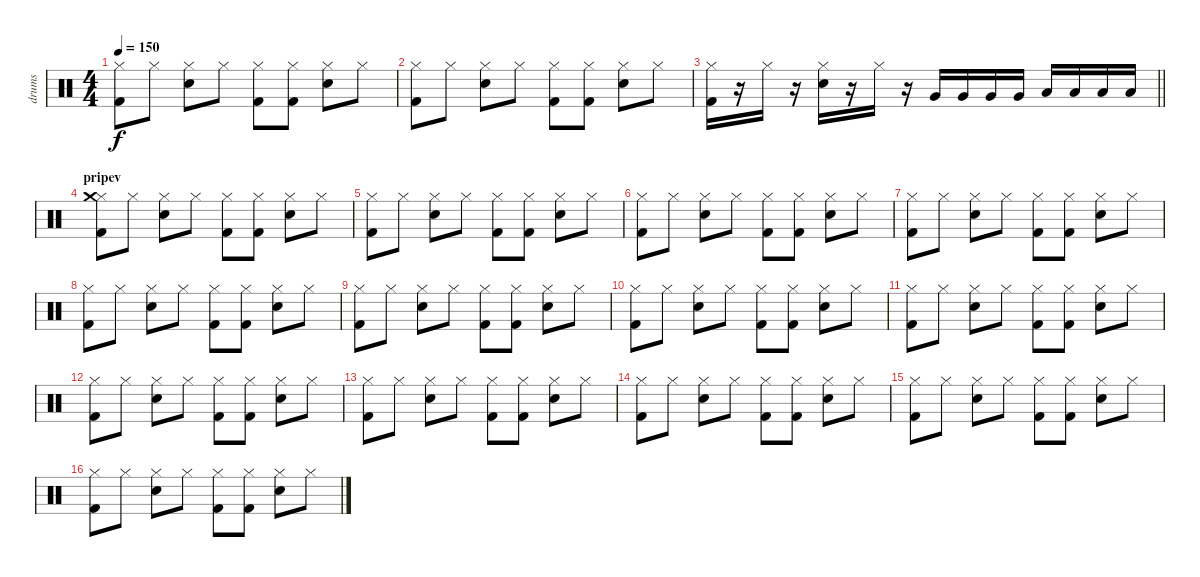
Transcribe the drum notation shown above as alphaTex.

\track ("drums" "drums") {instrument percussion}
\staff {score}
\articulation defaults
\ts (4 4)
\tempo 150
\clef neutral
\ks c
("Kick (hit) 2" "Hi-Hat (closed)").8{dy f} "Hi-Hat (closed)".8 ("Snare (hit) 2" "Hi-Hat (closed)").8 "Hi-Hat (closed)".8 ("Kick (hit) 2" "Hi-Hat (closed)").8 ("Kick (hit) 2" "Hi-Hat (closed)").8 ("Snare (hit) 2" "Hi-Hat (closed)").8 "Hi-Hat (closed)".8 |
("Kick (hit) 2" "Hi-Hat (closed)").8 "Hi-Hat (closed)".8 ("Snare (hit) 2" "Hi-Hat (closed)").8 "Hi-Hat (closed)".8 ("Kick (hit) 2" "Hi-Hat (closed)").8 ("Kick (hit) 2" "Hi-Hat (closed)").8 ("Snare (hit) 2" "Hi-Hat (closed)").8 "Hi-Hat (closed)".8 |
\barLineRight lightlight
("Kick (hit) 2" "Hi-Hat (closed)").16 r.16 "Hi-Hat (closed)".16 r.16 ("Snare (hit) 2" "Hi-Hat (closed)").16 r.16 "Hi-Hat (closed)".16 r.16 "Very Low Tom (hit)".16 "Very Low Tom (hit)".16 "Very Low Tom (hit)".16 "Very Low Tom (hit)".16 "Low Floor Tom (hit)".16 "Low Floor Tom (hit)".16 "Low Floor Tom (hit)".16 "Low Floor Tom (hit)".16 |
\section ("" "pripev")
("Kick (hit) 2" "Hi-Hat (closed)" "Crash medium (hit)").8 "Hi-Hat (closed)".8 ("Snare (hit) 2" "Hi-Hat (closed)").8 "Hi-Hat (closed)".8 ("Kick (hit) 2" "Hi-Hat (closed)").8 ("Kick (hit) 2" "Hi-Hat (closed)").8 ("Snare (hit) 2" "Hi-Hat (closed)").8 "Hi-Hat (closed)".8 |
("Kick (hit) 2" "Hi-Hat (closed)").8 "Hi-Hat (closed)".8 ("Snare (hit) 2" "Hi-Hat (closed)").8 "Hi-Hat (closed)".8 ("Kick (hit) 2" "Hi-Hat (closed)").8 ("Kick (hit) 2" "Hi-Hat (closed)").8 ("Snare (hit) 2" "Hi-Hat (closed)").8 "Hi-Hat (closed)".8 |
("Kick (hit) 2" "Hi-Hat (closed)").8 "Hi-Hat (closed)".8 ("Snare (hit) 2" "Hi-Hat (closed)").8 "Hi-Hat (closed)".8 ("Kick (hit) 2" "Hi-Hat (closed)").8 ("Kick (hit) 2" "Hi-Hat (closed)").8 ("Snare (hit) 2" "Hi-Hat (closed)").8 "Hi-Hat (closed)".8 |
("Kick (hit) 2" "Hi-Hat (closed)").8 "Hi-Hat (closed)".8 ("Snare (hit) 2" "Hi-Hat (closed)").8 "Hi-Hat (closed)".8 ("Kick (hit) 2" "Hi-Hat (closed)").8 ("Kick (hit) 2" "Hi-Hat (closed)").8 ("Snare (hit) 2" "Hi-Hat (closed)").8 "Hi-Hat (closed)".8 |
("Kick (hit) 2" "Hi-Hat (closed)").8 "Hi-Hat (closed)".8 ("Snare (hit) 2" "Hi-Hat (closed)").8 "Hi-Hat (closed)".8 ("Kick (hit) 2" "Hi-Hat (closed)").8 ("Kick (hit) 2" "Hi-Hat (closed)").8 ("Snare (hit) 2" "Hi-Hat (closed)").8 "Hi-Hat (closed)".8 |
("Kick (hit) 2" "Hi-Hat (closed)").8 "Hi-Hat (closed)".8 ("Snare (hit) 2" "Hi-Hat (closed)").8 "Hi-Hat (closed)".8 ("Kick (hit) 2" "Hi-Hat (closed)").8 ("Kick (hit) 2" "Hi-Hat (closed)").8 ("Snare (hit) 2" "Hi-Hat (closed)").8 "Hi-Hat (closed)".8 |
("Kick (hit) 2" "Hi-Hat (closed)").8 "Hi-Hat (closed)".8 ("Snare (hit) 2" "Hi-Hat (closed)").8 "Hi-Hat (closed)".8 ("Kick (hit) 2" "Hi-Hat (closed)").8 ("Kick (hit) 2" "Hi-Hat (closed)").8 ("Snare (hit) 2" "Hi-Hat (closed)").8 "Hi-Hat (closed)".8 |
("Kick (hit) 2" "Hi-Hat (closed)").8 "Hi-Hat (closed)".8 ("Snare (hit) 2" "Hi-Hat (closed)").8 "Hi-Hat (closed)".8 ("Kick (hit) 2" "Hi-Hat (closed)").8 ("Kick (hit) 2" "Hi-Hat (closed)").8 ("Snare (hit) 2" "Hi-Hat (closed)").8 "Hi-Hat (closed)".8 |
("Kick (hit) 2" "Hi-Hat (closed)").8 "Hi-Hat (closed)".8 ("Snare (hit) 2" "Hi-Hat (closed)").8 "Hi-Hat (closed)".8 ("Kick (hit) 2" "Hi-Hat (closed)").8 ("Kick (hit) 2" "Hi-Hat (closed)").8 ("Snare (hit) 2" "Hi-Hat (closed)").8 "Hi-Hat (closed)".8 |
("Kick (hit) 2" "Hi-Hat (closed)").8 "Hi-Hat (closed)".8 ("Snare (hit) 2" "Hi-Hat (closed)").8 "Hi-Hat (closed)".8 ("Kick (hit) 2" "Hi-Hat (closed)").8 ("Kick (hit) 2" "Hi-Hat (closed)").8 ("Snare (hit) 2" "Hi-Hat (closed)").8 "Hi-Hat (closed)".8 |
("Kick (hit) 2" "Hi-Hat (closed)").8 "Hi-Hat (closed)".8 ("Snare (hit) 2" "Hi-Hat (closed)").8 "Hi-Hat (closed)".8 ("Kick (hit) 2" "Hi-Hat (closed)").8 ("Kick (hit) 2" "Hi-Hat (closed)").8 ("Snare (hit) 2" "Hi-Hat (closed)").8 "Hi-Hat (closed)".8 |
("Kick (hit) 2" "Hi-Hat (closed)").8 "Hi-Hat (closed)".8 ("Snare (hit) 2" "Hi-Hat (closed)").8 "Hi-Hat (closed)".8 ("Kick (hit) 2" "Hi-Hat (closed)").8 ("Kick (hit) 2" "Hi-Hat (closed)").8 ("Snare (hit) 2" "Hi-Hat (closed)").8 "Hi-Hat (closed)".8 |
("Kick (hit) 2" "Hi-Hat (closed)").8 "Hi-Hat (closed)".8 ("Snare (hit) 2" "Hi-Hat (closed)").8 "Hi-Hat (closed)".8 ("Kick (hit) 2" "Hi-Hat (closed)").8 ("Kick (hit) 2" "Hi-Hat (closed)").8 ("Snare (hit) 2" "Hi-Hat (closed)").8 "Hi-Hat (closed)".8
